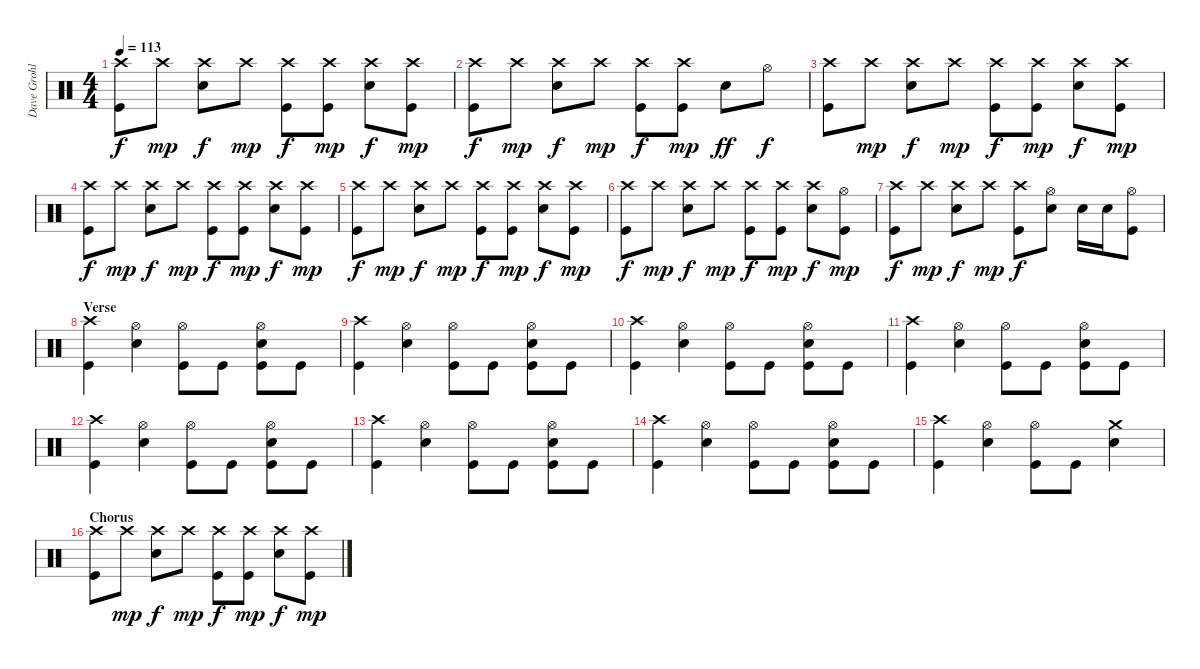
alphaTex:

\track ("Dave Grohl" "Dave Grohl") {instrument percussion}
\staff {score}
\articulation defaults
\ts (4 4)
\tempo 113
\clef neutral
\ks c
("Crash high (hit)" "Kick (hit)").8{dy f} "Crash high (hit)".8{dy mp} ("Crash high (hit)" "Electric Snare (hit)").8{dy f} "Crash high (hit)".8{dy mp} ("Crash high (hit)" "Kick (hit)").8{dy f} ("Crash high (hit)" "Kick (hit)").8{dy mp} ("Crash high (hit)" "Electric Snare (hit)").8{dy f} ("Crash high (hit)" "Kick (hit)").8{dy mp} |
("Crash high (hit)" "Kick (hit)").8{dy f} "Crash high (hit)".8{dy mp} ("Crash high (hit)" "Electric Snare (hit)").8{dy f} "Crash high (hit)".8{dy mp} ("Crash high (hit)" "Kick (hit)").8{dy f} ("Crash high (hit)" "Kick (hit)").8{dy mp} "Electric Snare (hit)".8{dy ff} "Hi-Hat (open)".8{dy f} |
("Crash high (hit)" "Kick (hit)").8 "Crash high (hit)".8{dy mp} ("Crash high (hit)" "Electric Snare (hit)").8{dy f} "Crash high (hit)".8{dy mp} ("Crash high (hit)" "Kick (hit)").8{dy f} ("Crash high (hit)" "Kick (hit)").8{dy mp} ("Crash high (hit)" "Electric Snare (hit)").8{dy f} ("Crash high (hit)" "Kick (hit)").8{dy mp} |
("Crash high (hit)" "Kick (hit)").8{dy f} "Crash high (hit)".8{dy mp} ("Crash high (hit)" "Electric Snare (hit)").8{dy f} "Crash high (hit)".8{dy mp} ("Crash high (hit)" "Kick (hit)").8{dy f} ("Crash high (hit)" "Kick (hit)").8{dy mp} ("Crash high (hit)" "Electric Snare (hit)").8{dy f} ("Crash high (hit)" "Kick (hit)").8{dy mp} |
("Crash high (hit)" "Kick (hit)").8{dy f} "Crash high (hit)".8{dy mp} ("Crash high (hit)" "Electric Snare (hit)").8{dy f} "Crash high (hit)".8{dy mp} ("Crash high (hit)" "Kick (hit)").8{dy f} ("Crash high (hit)" "Kick (hit)").8{dy mp} ("Crash high (hit)" "Electric Snare (hit)").8{dy f} ("Crash high (hit)" "Kick (hit)").8{dy mp} |
("Crash high (hit)" "Kick (hit)").8{dy f} "Crash high (hit)".8{dy mp} ("Crash high (hit)" "Electric Snare (hit)").8{dy f} "Crash high (hit)".8{dy mp} ("Crash high (hit)" "Kick (hit)").8{dy f} ("Crash high (hit)" "Kick (hit)").8{dy mp} ("Crash high (hit)" "Electric Snare (hit)").8{dy f} ("Hi-Hat (open)" "Kick (hit)").8{dy mp} |
("Crash high (hit)" "Kick (hit)").8{dy f} "Crash high (hit)".8{dy mp} ("Crash high (hit)" "Electric Snare (hit)").8{dy f} "Crash high (hit)".8{dy mp} ("Crash high (hit)" "Kick (hit)").8{dy f} ("Hi-Hat (open)" "Electric Snare (hit)").8 "Electric Snare (hit)".16 "Electric Snare (hit)".16 ("Hi-Hat (open)" "Kick (hit)").8 |
\section ("" "Verse")
("Crash high (hit)" "Kick (hit)").4 ("Hi-Hat (open)" "Electric Snare (hit)").4 ("Hi-Hat (open)" "Kick (hit)").8 "Kick (hit)".8 ("Hi-Hat (open)" "Electric Snare (hit)" "Kick (hit)").8 "Kick (hit)".8 |
("Crash high (hit)" "Kick (hit)").4 ("Hi-Hat (open)" "Electric Snare (hit)").4 ("Hi-Hat (open)" "Kick (hit)").8 "Kick (hit)".8 ("Hi-Hat (open)" "Electric Snare (hit)" "Kick (hit)").8 "Kick (hit)".8 |
("Crash high (hit)" "Kick (hit)").4 ("Hi-Hat (open)" "Electric Snare (hit)").4 ("Hi-Hat (open)" "Kick (hit)").8 "Kick (hit)".8 ("Hi-Hat (open)" "Electric Snare (hit)" "Kick (hit)").8 "Kick (hit)".8 |
("Crash high (hit)" "Kick (hit)").4 ("Hi-Hat (open)" "Electric Snare (hit)").4 ("Hi-Hat (open)" "Kick (hit)").8 "Kick (hit)".8 ("Hi-Hat (open)" "Electric Snare (hit)" "Kick (hit)").8 "Kick (hit)".8 |
("Crash high (hit)" "Kick (hit)").4 ("Hi-Hat (open)" "Electric Snare (hit)").4 ("Hi-Hat (open)" "Kick (hit)").8 "Kick (hit)".8 ("Hi-Hat (open)" "Electric Snare (hit)" "Kick (hit)").8 "Kick (hit)".8 |
("Crash high (hit)" "Kick (hit)").4 ("Hi-Hat (open)" "Electric Snare (hit)").4 ("Hi-Hat (open)" "Kick (hit)").8 "Kick (hit)".8 ("Hi-Hat (open)" "Electric Snare (hit)" "Kick (hit)").8 "Kick (hit)".8 |
("Crash high (hit)" "Kick (hit)").4 ("Hi-Hat (open)" "Electric Snare (hit)").4 ("Hi-Hat (open)" "Kick (hit)").8 "Kick (hit)".8 ("Hi-Hat (open)" "Electric Snare (hit)" "Kick (hit)").8 "Kick (hit)".8 |
("Crash high (hit)" "Kick (hit)").4 ("Hi-Hat (open)" "Electric Snare (hit)").4 ("Hi-Hat (open)" "Kick (hit)").8 "Kick (hit)".8 ("Crash medium (hit)" "Electric Snare (hit)").4 |
\section ("" "Chorus")
("Crash high (hit)" "Kick (hit)").8 "Crash high (hit)".8{dy mp} ("Crash high (hit)" "Electric Snare (hit)").8{dy f} "Crash high (hit)".8{dy mp} ("Crash high (hit)" "Kick (hit)").8{dy f} ("Crash high (hit)" "Kick (hit)").8{dy mp} ("Crash high (hit)" "Electric Snare (hit)").8{dy f} ("Crash high (hit)" "Kick (hit)").8{dy mp}
